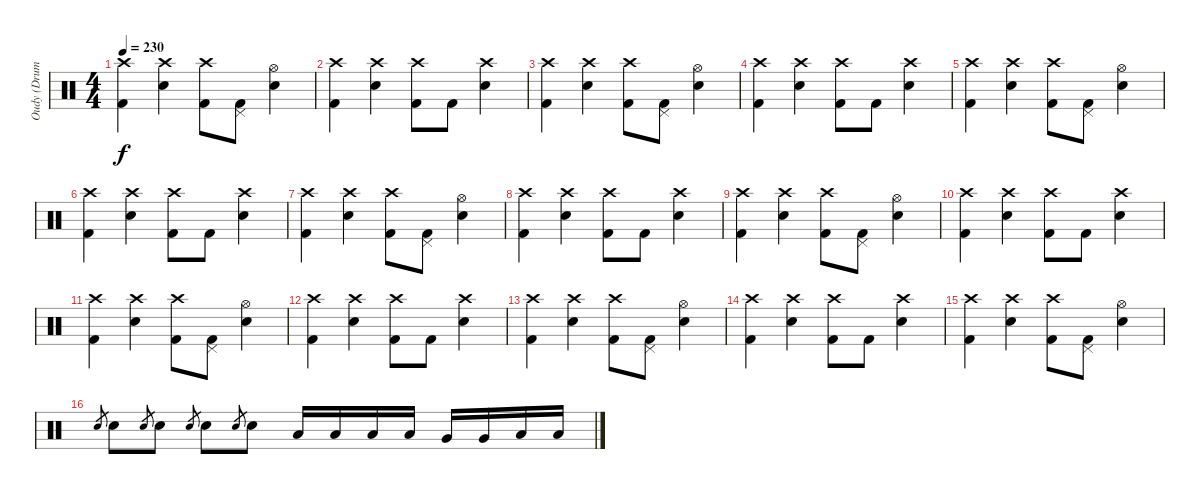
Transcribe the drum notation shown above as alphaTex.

\track ("Oudy (Drums) (See F5)" "Oudy (Drum") {instrument percussion}
\staff {score}
\articulation defaults
\ts (4 4)
\tempo 230
\clef neutral
\ks c
("Crash high (hit)" "Kick (hit) 2").4{dy f} ("Crash high (hit)" "Electric Snare (hit)").4 ("Crash high (hit)" "Kick (hit) 2").8 ("Pedal Hi-Hat (hit)" "Kick (hit) 2").8 ("Hi-Hat (open)" "Electric Snare (hit)").4 |
("Crash high (hit)" "Kick (hit) 2").4 ("Crash high (hit)" "Electric Snare (hit)").4 ("Crash high (hit)" "Kick (hit) 2").8 "Kick (hit) 2".8 ("Crash high (hit)" "Electric Snare (hit)").4 |
("Crash high (hit)" "Kick (hit) 2").4 ("Crash high (hit)" "Electric Snare (hit)").4 ("Crash high (hit)" "Kick (hit) 2").8 ("Pedal Hi-Hat (hit)" "Kick (hit) 2").8 ("Hi-Hat (open)" "Electric Snare (hit)").4 |
("Crash high (hit)" "Kick (hit) 2").4 ("Crash high (hit)" "Electric Snare (hit)").4 ("Crash high (hit)" "Kick (hit) 2").8 "Kick (hit) 2".8 ("Crash high (hit)" "Electric Snare (hit)").4 |
("Crash high (hit)" "Kick (hit) 2").4 ("Crash high (hit)" "Electric Snare (hit)").4 ("Crash high (hit)" "Kick (hit) 2").8 ("Pedal Hi-Hat (hit)" "Kick (hit) 2").8 ("Hi-Hat (open)" "Electric Snare (hit)").4 |
("Crash high (hit)" "Kick (hit) 2").4 ("Crash high (hit)" "Electric Snare (hit)").4 ("Crash high (hit)" "Kick (hit) 2").8 "Kick (hit) 2".8 ("Crash high (hit)" "Electric Snare (hit)").4 |
("Crash high (hit)" "Kick (hit) 2").4 ("Crash high (hit)" "Electric Snare (hit)").4 ("Crash high (hit)" "Kick (hit) 2").8 ("Pedal Hi-Hat (hit)" "Kick (hit) 2").8 ("Hi-Hat (open)" "Electric Snare (hit)").4 |
("Crash high (hit)" "Kick (hit) 2").4 ("Crash high (hit)" "Electric Snare (hit)").4 ("Crash high (hit)" "Kick (hit) 2").8 "Kick (hit) 2".8 ("Crash high (hit)" "Electric Snare (hit)").4 |
("Crash high (hit)" "Kick (hit) 2").4 ("Crash high (hit)" "Electric Snare (hit)").4 ("Crash high (hit)" "Kick (hit) 2").8 ("Pedal Hi-Hat (hit)" "Kick (hit) 2").8 ("Hi-Hat (open)" "Electric Snare (hit)").4 |
("Crash high (hit)" "Kick (hit) 2").4 ("Crash high (hit)" "Electric Snare (hit)").4 ("Crash high (hit)" "Kick (hit) 2").8 "Kick (hit) 2".8 ("Crash high (hit)" "Electric Snare (hit)").4 |
("Crash high (hit)" "Kick (hit) 2").4 ("Crash high (hit)" "Electric Snare (hit)").4 ("Crash high (hit)" "Kick (hit) 2").8 ("Pedal Hi-Hat (hit)" "Kick (hit) 2").8 ("Hi-Hat (open)" "Electric Snare (hit)").4 |
("Crash high (hit)" "Kick (hit) 2").4 ("Crash high (hit)" "Electric Snare (hit)").4 ("Crash high (hit)" "Kick (hit) 2").8 "Kick (hit) 2".8 ("Crash high (hit)" "Electric Snare (hit)").4 |
("Crash high (hit)" "Kick (hit) 2").4 ("Crash high (hit)" "Electric Snare (hit)").4 ("Crash high (hit)" "Kick (hit) 2").8 ("Pedal Hi-Hat (hit)" "Kick (hit) 2").8 ("Hi-Hat (open)" "Electric Snare (hit)").4 |
("Crash high (hit)" "Kick (hit) 2").4 ("Crash high (hit)" "Electric Snare (hit)").4 ("Crash high (hit)" "Kick (hit) 2").8 "Kick (hit) 2".8 ("Crash high (hit)" "Electric Snare (hit)").4 |
("Crash high (hit)" "Kick (hit) 2").4 ("Crash high (hit)" "Electric Snare (hit)").4 ("Crash high (hit)" "Kick (hit) 2").8 ("Pedal Hi-Hat (hit)" "Kick (hit) 2").8 ("Hi-Hat (open)" "Electric Snare (hit)").4 |
"Electric Snare (hit)".8{gr} "Electric Snare (hit)".8 "Electric Snare (hit)".8{gr} "Electric Snare (hit)".8 "Electric Snare (hit)".8{gr} "Electric Snare (hit)".8 "Electric Snare (hit)".8{gr} "Electric Snare (hit)".8 "Low Floor Tom (hit)".16 "Low Floor Tom (hit)".16 "Low Floor Tom (hit)".16 "Low Floor Tom (hit)".16 "Very Low Tom (hit)".16 "Very Low Tom (hit)".16 "Low Tom (hit)".16 "Low Tom (hit)".16
